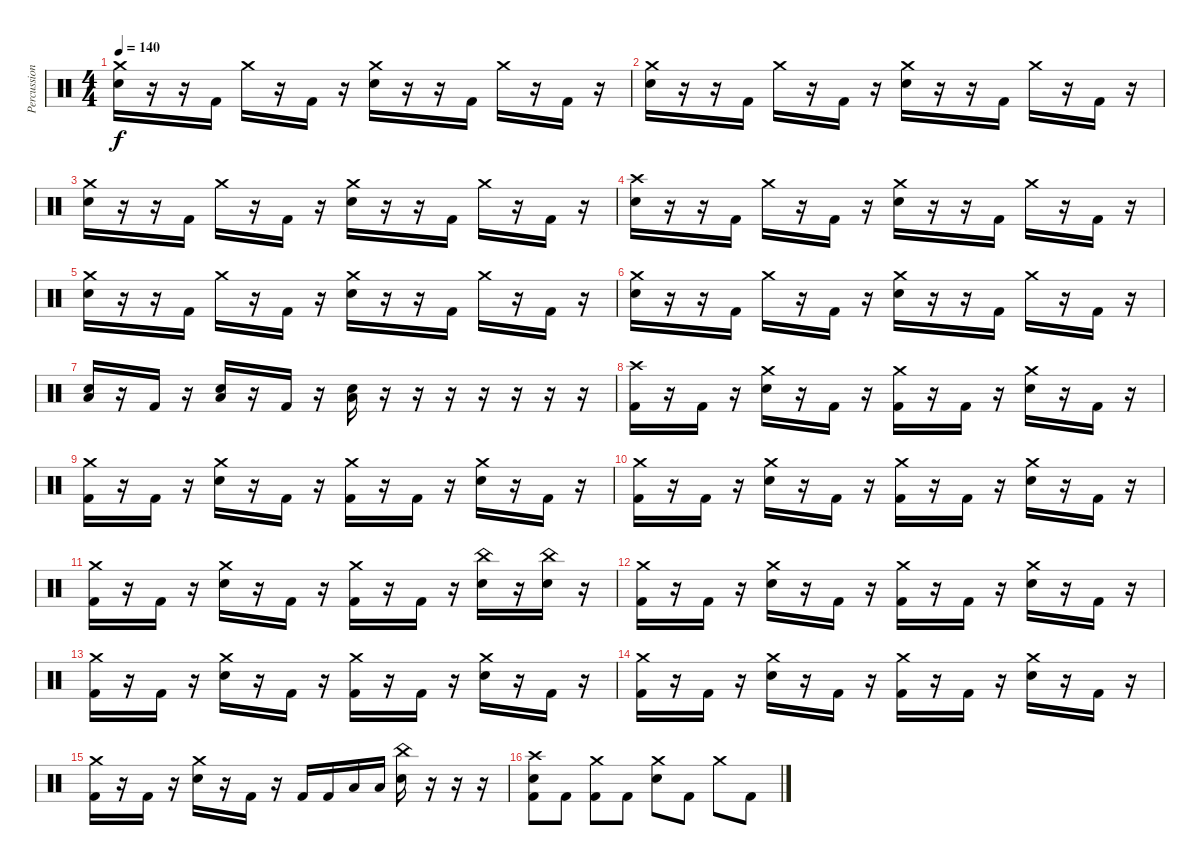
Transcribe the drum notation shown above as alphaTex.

\track ("Percussions" "Percussion") {instrument percussion}
\staff {score}
\articulation defaults
\ts (4 4)
\tempo 140
\clef neutral
\ks c
("Electric Snare (hit)" "Crash medium (hit)").16{dy f} r.16 r.16 "Kick (hit) 2".16 "Crash medium (hit)".16 r.16 "Kick (hit) 2".16 r.16 ("Electric Snare (hit)" "Crash medium (hit)").16 r.16 r.16 "Kick (hit) 2".16 "Crash medium (hit)".16 r.16 "Kick (hit) 2".16 r.16 |
("Electric Snare (hit)" "Crash medium (hit)").16 r.16 r.16 "Kick (hit) 2".16 "Crash medium (hit)".16 r.16 "Kick (hit) 2".16 r.16 ("Electric Snare (hit)" "Crash medium (hit)").16 r.16 r.16 "Kick (hit) 2".16 "Crash medium (hit)".16 r.16 "Kick (hit) 2".16 r.16 |
("Electric Snare (hit)" "Crash medium (hit)").16 r.16 r.16 "Kick (hit) 2".16 "Crash medium (hit)".16 r.16 "Kick (hit) 2".16 r.16 ("Electric Snare (hit)" "Crash medium (hit)").16 r.16 r.16 "Kick (hit) 2".16 "Crash medium (hit)".16 r.16 "Kick (hit) 2".16 r.16 |
("Electric Snare (hit)" "Crash high (hit)").16 r.16 r.16 "Kick (hit) 2".16 "Crash medium (hit)".16 r.16 "Kick (hit) 2".16 r.16 ("Electric Snare (hit)" "Crash medium (hit)").16 r.16 r.16 "Kick (hit) 2".16 "Crash medium (hit)".16 r.16 "Kick (hit) 2".16 r.16 |
("Electric Snare (hit)" "Crash medium (hit)").16 r.16 r.16 "Kick (hit) 2".16 "Crash medium (hit)".16 r.16 "Kick (hit) 2".16 r.16 ("Electric Snare (hit)" "Crash medium (hit)").16 r.16 r.16 "Kick (hit) 2".16 "Crash medium (hit)".16 r.16 "Kick (hit) 2".16 r.16 |
("Electric Snare (hit)" "Crash medium (hit)").16 r.16 r.16 "Kick (hit) 2".16 "Crash medium (hit)".16 r.16 "Kick (hit) 2".16 r.16 ("Electric Snare (hit)" "Crash medium (hit)").16 r.16 r.16 "Kick (hit) 2".16 "Crash medium (hit)".16 r.16 "Kick (hit) 2".16 r.16 |
("Electric Snare (hit)" "Low Tom (hit)").16 r.16 "Kick (hit) 2".16 r.16 ("Electric Snare (hit)" "Low Tom (hit)").16 r.16 "Kick (hit) 2".16 r.16 ("Electric Snare (hit)" "Low Tom (hit)").16 r.16 r.16 r.16 r.16 r.16 r.16 r.16 |
("Kick (hit) 2" "Crash high (hit)").16 r.16 "Kick (hit) 2".16 r.16 ("Electric Snare (hit)" "Crash medium (hit)").16 r.16 "Kick (hit) 2".16 r.16 ("Kick (hit) 2" "Crash medium (hit)").16 r.16 "Kick (hit) 2".16 r.16 ("Electric Snare (hit)" "Crash medium (hit)").16 r.16 "Kick (hit) 2".16 r.16 |
("Kick (hit) 2" "Crash medium (hit)").16 r.16 "Kick (hit) 2".16 r.16 ("Electric Snare (hit)" "Crash medium (hit)").16 r.16 "Kick (hit) 2".16 r.16 ("Kick (hit) 2" "Crash medium (hit)").16 r.16 "Kick (hit) 2".16 r.16 ("Electric Snare (hit)" "Crash medium (hit)").16 r.16 "Kick (hit) 2".16 r.16 |
("Kick (hit) 2" "Crash medium (hit)").16 r.16 "Kick (hit) 2".16 r.16 ("Electric Snare (hit)" "Crash medium (hit)").16 r.16 "Kick (hit) 2".16 r.16 ("Kick (hit) 2" "Crash medium (hit)").16 r.16 "Kick (hit) 2".16 r.16 ("Electric Snare (hit)" "Crash medium (hit)").16 r.16 "Kick (hit) 2".16 r.16 |
("Kick (hit) 2" "Crash medium (hit)").16 r.16 "Kick (hit) 2".16 r.16 ("Electric Snare (hit)" "Crash medium (hit)").16 r.16 "Kick (hit) 2".16 r.16 ("Kick (hit) 2" "Crash medium (hit)").16 r.16 "Kick (hit) 2".16 r.16 ("Electric Snare (hit)" "China (hit)").16 r.16 ("Electric Snare (hit)" "China (hit)").16 r.16 |
("Kick (hit) 2" "Crash medium (hit)").16 r.16 "Kick (hit) 2".16 r.16 ("Electric Snare (hit)" "Crash medium (hit)").16 r.16 "Kick (hit) 2".16 r.16 ("Kick (hit) 2" "Crash medium (hit)").16 r.16 "Kick (hit) 2".16 r.16 ("Electric Snare (hit)" "Crash medium (hit)").16 r.16 "Kick (hit) 2".16 r.16 |
("Kick (hit) 2" "Crash medium (hit)").16 r.16 "Kick (hit) 2".16 r.16 ("Electric Snare (hit)" "Crash medium (hit)").16 r.16 "Kick (hit) 2".16 r.16 ("Kick (hit) 2" "Crash medium (hit)").16 r.16 "Kick (hit) 2".16 r.16 ("Electric Snare (hit)" "Crash medium (hit)").16 r.16 "Kick (hit) 2".16 r.16 |
("Kick (hit) 2" "Crash medium (hit)").16 r.16 "Kick (hit) 2".16 r.16 ("Electric Snare (hit)" "Crash medium (hit)").16 r.16 "Kick (hit) 2".16 r.16 ("Kick (hit) 2" "Crash medium (hit)").16 r.16 "Kick (hit) 2".16 r.16 ("Electric Snare (hit)" "Crash medium (hit)").16 r.16 "Kick (hit) 2".16 r.16 |
("Kick (hit) 2" "Crash medium (hit)").16 r.16 "Kick (hit) 2".16 r.16 ("Electric Snare (hit)" "Crash medium (hit)").16 r.16 "Kick (hit) 2".16 r.16 "Kick (hit) 2".16 "Kick (hit) 2".16 "Low Tom (hit)".16 "Low Tom (hit)".16 ("Electric Snare (hit)" "China (hit)").16 r.16 r.16 r.16 |
("Kick (hit) 2" "Electric Snare (hit)" "Crash high (hit)").8 "Kick (hit) 2".8 ("Kick (hit) 2" "Crash medium (hit)").8 "Kick (hit) 2".8 ("Electric Snare (hit)" "Crash medium (hit)").8 "Kick (hit) 2".8 "Crash medium (hit)".8 "Kick (hit) 2".8
